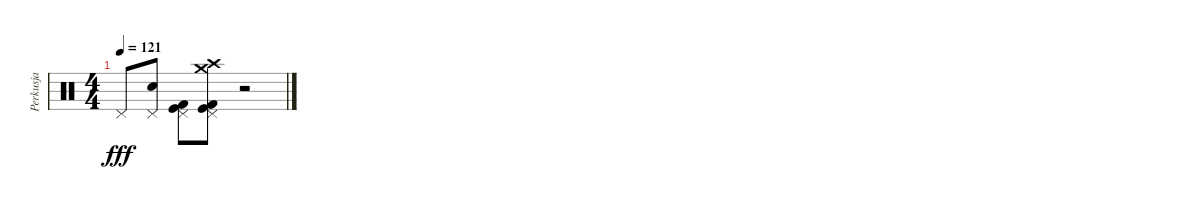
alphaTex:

\track ("Perkusja" "Perkusja") {instrument percussion}
\staff {score}
\articulation defaults
\ts (4 4)
\tempo 121
\clef neutral
\ks c "Pedal Hi-Hat (hit)".8{dy fff}
("Pedal Hi-Hat (hit)" "Hand Clap (hit)").8 ("Pedal Hi-Hat (hit)" "Kick (hit)" "Kick (hit) 2").8 ("Kick (hit)" "Kick (hit) 2" "Crash medium (hit)" "Crash high (hit)" "Pedal Hi-Hat (hit)").8 r.2
